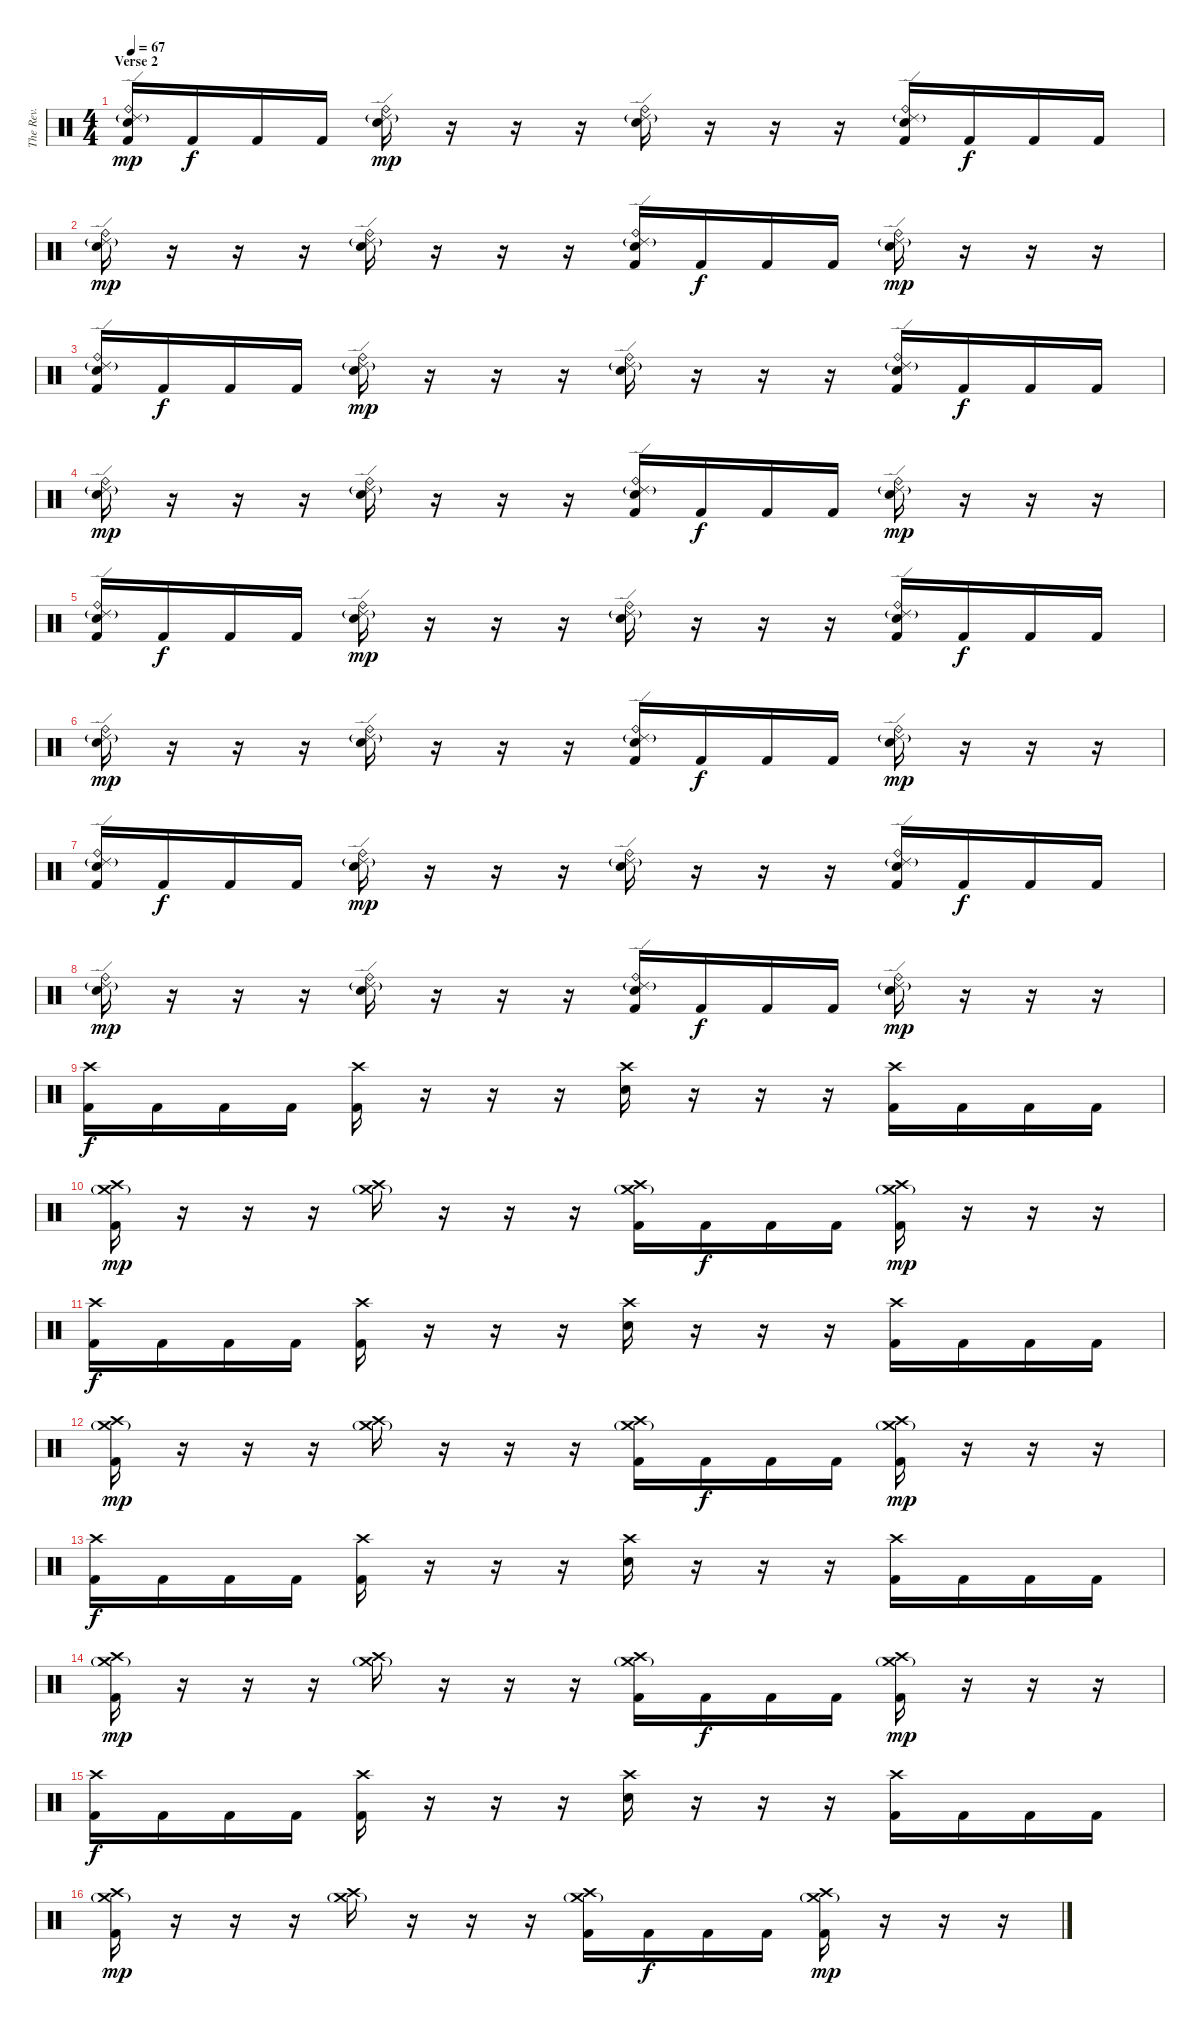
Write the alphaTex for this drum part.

\track ("The Rev." "The Rev.") {instrument percussion}
\staff {score}
\articulation defaults
\ts (4 4)
\section ("" "Verse 2")
\tempo 67
\clef neutral
\ks c
("Ride (edge) 2"{g} "Ride (bell)" "Electric Snare (hit)" "Kick (hit) 2").16{dy mp} "Kick (hit) 2".16{dy f} "Kick (hit) 2".16 "Kick (hit) 2".16 ("Ride (edge) 2"{g} "Ride (bell)" "Electric Snare (hit)").16{dy mp} r.16 r.16 r.16 ("Ride (edge) 2"{g} "Ride (bell)" "Electric Snare (hit)").16 r.16 r.16 r.16 ("Ride (edge) 2"{g} "Ride (bell)" "Electric Snare (hit)" "Kick (hit) 2").16 "Kick (hit) 2".16{dy f} "Kick (hit) 2".16 "Kick (hit) 2".16 |
("Ride (edge) 2"{g} "Ride (bell)" "Electric Snare (hit)").16{dy mp} r.16 r.16 r.16 ("Ride (edge) 2"{g} "Ride (bell)" "Electric Snare (hit)").16 r.16 r.16 r.16 ("Ride (edge) 2"{g} "Ride (bell)" "Electric Snare (hit)" "Kick (hit) 2").16 "Kick (hit) 2".16{dy f} "Kick (hit) 2".16 "Kick (hit) 2".16 ("Ride (edge) 2"{g} "Ride (bell)" "Electric Snare (hit)").16{dy mp} r.16 r.16 r.16 |
("Ride (edge) 2"{g} "Ride (bell)" "Electric Snare (hit)" "Kick (hit) 2").16 "Kick (hit) 2".16{dy f} "Kick (hit) 2".16 "Kick (hit) 2".16 ("Ride (edge) 2"{g} "Ride (bell)" "Electric Snare (hit)").16{dy mp} r.16 r.16 r.16 ("Ride (edge) 2"{g} "Ride (bell)" "Electric Snare (hit)").16 r.16 r.16 r.16 ("Ride (edge) 2"{g} "Ride (bell)" "Electric Snare (hit)" "Kick (hit) 2").16 "Kick (hit) 2".16{dy f} "Kick (hit) 2".16 "Kick (hit) 2".16 |
("Ride (edge) 2"{g} "Ride (bell)" "Electric Snare (hit)").16{dy mp} r.16 r.16 r.16 ("Ride (edge) 2"{g} "Ride (bell)" "Electric Snare (hit)").16 r.16 r.16 r.16 ("Ride (edge) 2"{g} "Ride (bell)" "Electric Snare (hit)" "Kick (hit) 2").16 "Kick (hit) 2".16{dy f} "Kick (hit) 2".16 "Kick (hit) 2".16 ("Ride (edge) 2"{g} "Ride (bell)" "Electric Snare (hit)").16{dy mp} r.16 r.16 r.16 |
("Ride (edge) 2"{g} "Ride (bell)" "Electric Snare (hit)" "Kick (hit) 2").16 "Kick (hit) 2".16{dy f} "Kick (hit) 2".16 "Kick (hit) 2".16 ("Ride (edge) 2"{g} "Ride (bell)" "Electric Snare (hit)").16{dy mp} r.16 r.16 r.16 ("Ride (edge) 2"{g} "Ride (bell)" "Electric Snare (hit)").16 r.16 r.16 r.16 ("Ride (edge) 2"{g} "Ride (bell)" "Electric Snare (hit)" "Kick (hit) 2").16 "Kick (hit) 2".16{dy f} "Kick (hit) 2".16 "Kick (hit) 2".16 |
("Ride (edge) 2"{g} "Ride (bell)" "Electric Snare (hit)").16{dy mp} r.16 r.16 r.16 ("Ride (edge) 2"{g} "Ride (bell)" "Electric Snare (hit)").16 r.16 r.16 r.16 ("Ride (edge) 2"{g} "Ride (bell)" "Electric Snare (hit)" "Kick (hit) 2").16 "Kick (hit) 2".16{dy f} "Kick (hit) 2".16 "Kick (hit) 2".16 ("Ride (edge) 2"{g} "Ride (bell)" "Electric Snare (hit)").16{dy mp} r.16 r.16 r.16 |
("Ride (edge) 2"{g} "Ride (bell)" "Electric Snare (hit)" "Kick (hit) 2").16 "Kick (hit) 2".16{dy f} "Kick (hit) 2".16 "Kick (hit) 2".16 ("Ride (edge) 2"{g} "Ride (bell)" "Electric Snare (hit)").16{dy mp} r.16 r.16 r.16 ("Ride (edge) 2"{g} "Ride (bell)" "Electric Snare (hit)").16 r.16 r.16 r.16 ("Ride (edge) 2"{g} "Ride (bell)" "Electric Snare (hit)" "Kick (hit) 2").16 "Kick (hit) 2".16{dy f} "Kick (hit) 2".16 "Kick (hit) 2".16 |
("Ride (edge) 2"{g} "Ride (bell)" "Electric Snare (hit)").16{dy mp} r.16 r.16 r.16 ("Ride (edge) 2"{g} "Ride (bell)" "Electric Snare (hit)").16 r.16 r.16 r.16 ("Ride (edge) 2"{g} "Ride (bell)" "Electric Snare (hit)" "Kick (hit) 2").16 "Kick (hit) 2".16{dy f} "Kick (hit) 2".16 "Kick (hit) 2".16 ("Ride (edge) 2"{g} "Ride (bell)" "Electric Snare (hit)").16{dy mp} r.16 r.16 r.16 |
("Crash high (hit)" "Kick (hit) 2").16{dy f} "Kick (hit) 2".16 "Kick (hit) 2".16 "Kick (hit) 2".16 ("Crash high (hit)" "Kick (hit) 2").16 r.16 r.16 r.16 ("Crash high (hit)" "Electric Snare (hit)").16 r.16 r.16 r.16 ("Crash high (hit)" "Kick (hit) 2").16 "Kick (hit) 2".16 "Kick (hit) 2".16 "Kick (hit) 2".16 |
("Crash high (hit)" "Crash medium (hit)"{g} "Kick (hit) 2").16{dy mp} r.16 r.16 r.16 ("Crash high (hit)" "Crash medium (hit)"{g}).16 r.16 r.16 r.16 ("Crash high (hit)" "Crash medium (hit)"{g} "Kick (hit) 2").16 "Kick (hit) 2".16{dy f} "Kick (hit) 2".16 "Kick (hit) 2".16 ("Crash high (hit)" "Crash medium (hit)"{g} "Kick (hit) 2").16{dy mp} r.16 r.16 r.16 |
("Crash high (hit)" "Kick (hit) 2").16{dy f} "Kick (hit) 2".16 "Kick (hit) 2".16 "Kick (hit) 2".16 ("Crash high (hit)" "Kick (hit) 2").16 r.16 r.16 r.16 ("Crash high (hit)" "Electric Snare (hit)").16 r.16 r.16 r.16 ("Crash high (hit)" "Kick (hit) 2").16 "Kick (hit) 2".16 "Kick (hit) 2".16 "Kick (hit) 2".16 |
("Crash high (hit)" "Crash medium (hit)"{g} "Kick (hit) 2").16{dy mp} r.16 r.16 r.16 ("Crash high (hit)" "Crash medium (hit)"{g}).16 r.16 r.16 r.16 ("Crash high (hit)" "Crash medium (hit)"{g} "Kick (hit) 2").16 "Kick (hit) 2".16{dy f} "Kick (hit) 2".16 "Kick (hit) 2".16 ("Crash high (hit)" "Crash medium (hit)"{g} "Kick (hit) 2").16{dy mp} r.16 r.16 r.16 |
("Crash high (hit)" "Kick (hit) 2").16{dy f} "Kick (hit) 2".16 "Kick (hit) 2".16 "Kick (hit) 2".16 ("Crash high (hit)" "Kick (hit) 2").16 r.16 r.16 r.16 ("Crash high (hit)" "Electric Snare (hit)").16 r.16 r.16 r.16 ("Crash high (hit)" "Kick (hit) 2").16 "Kick (hit) 2".16 "Kick (hit) 2".16 "Kick (hit) 2".16 |
("Crash high (hit)" "Crash medium (hit)"{g} "Kick (hit) 2").16{dy mp} r.16 r.16 r.16 ("Crash high (hit)" "Crash medium (hit)"{g}).16 r.16 r.16 r.16 ("Crash high (hit)" "Crash medium (hit)"{g} "Kick (hit) 2").16 "Kick (hit) 2".16{dy f} "Kick (hit) 2".16 "Kick (hit) 2".16 ("Crash high (hit)" "Crash medium (hit)"{g} "Kick (hit) 2").16{dy mp} r.16 r.16 r.16 |
("Crash high (hit)" "Kick (hit) 2").16{dy f} "Kick (hit) 2".16 "Kick (hit) 2".16 "Kick (hit) 2".16 ("Crash high (hit)" "Kick (hit) 2").16 r.16 r.16 r.16 ("Crash high (hit)" "Electric Snare (hit)").16 r.16 r.16 r.16 ("Crash high (hit)" "Kick (hit) 2").16 "Kick (hit) 2".16 "Kick (hit) 2".16 "Kick (hit) 2".16 |
("Crash high (hit)" "Crash medium (hit)"{g} "Kick (hit) 2").16{dy mp} r.16 r.16 r.16 ("Crash high (hit)" "Crash medium (hit)"{g}).16 r.16 r.16 r.16 ("Crash high (hit)" "Crash medium (hit)"{g} "Kick (hit) 2").16 "Kick (hit) 2".16{dy f} "Kick (hit) 2".16 "Kick (hit) 2".16 ("Crash high (hit)" "Crash medium (hit)"{g} "Kick (hit) 2").16{dy mp} r.16 r.16 r.16
